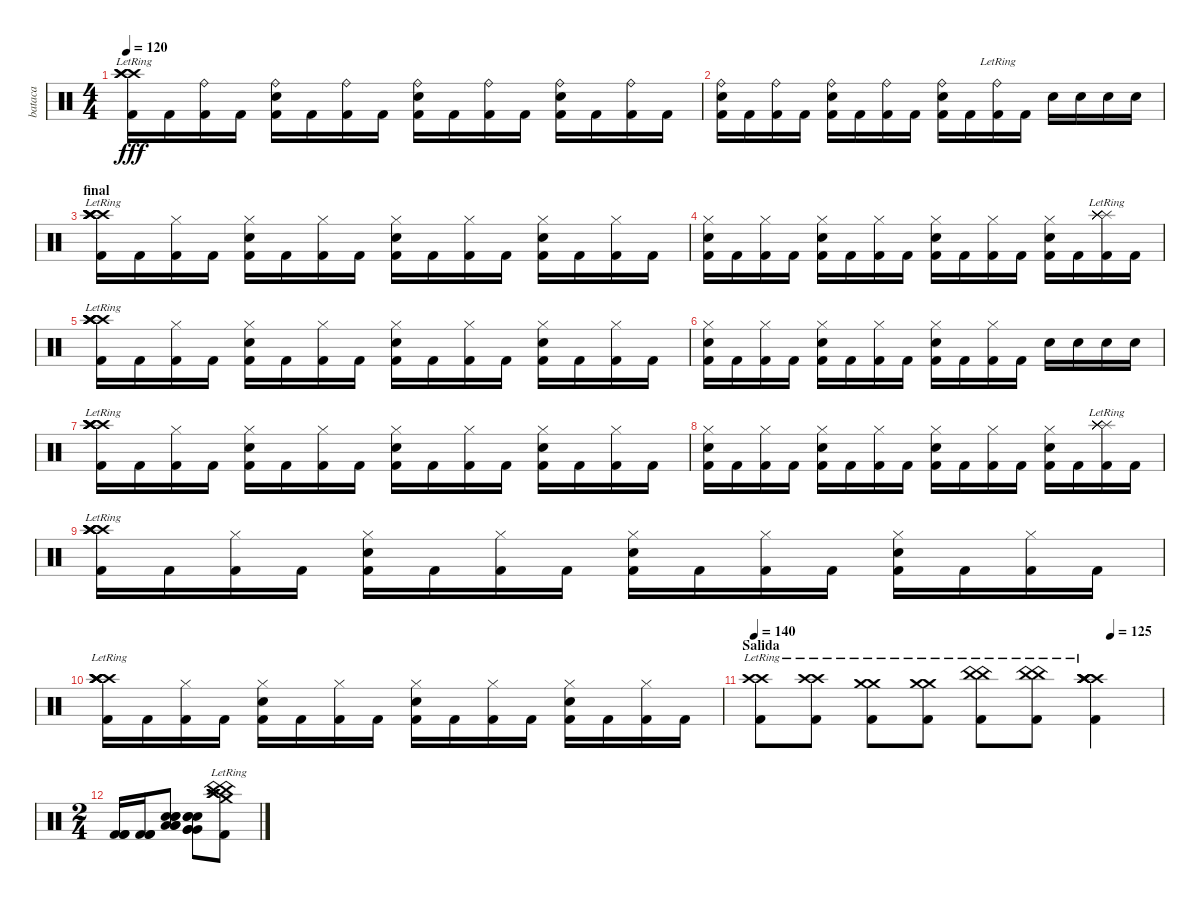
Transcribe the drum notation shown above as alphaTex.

\track ("bataca" "bataca") {instrument percussion}
\staff {score}
\articulation defaults
\ts (4 4)
\tempo 120
\clef neutral
\ks c
("Kick (hit) 2" "Crash high (hit)"{lr} "Crash high (hit)"{lr} "Crash high (hit)"{lr}).16{dy fff} "Kick (hit) 2".16 ("Kick (hit) 2" "Ride (bell)").16 "Kick (hit) 2".16 ("Kick (hit) 2" "Ride (bell)" "Electric Snare (hit)").16 "Kick (hit) 2".16 ("Kick (hit) 2" "Ride (bell)").16 "Kick (hit) 2".16 ("Kick (hit) 2" "Ride (bell)" "Electric Snare (hit)").16 "Kick (hit) 2".16 ("Kick (hit) 2" "Ride (bell)").16 "Kick (hit) 2".16 ("Kick (hit) 2" "Ride (bell)" "Electric Snare (hit)").16 "Kick (hit) 2".16 ("Kick (hit) 2" "Ride (bell)").16 "Kick (hit) 2".16 |
("Kick (hit) 2" "Ride (bell)" "Electric Snare (hit)").16 "Kick (hit) 2".16 ("Kick (hit) 2" "Ride (bell)").16 "Kick (hit) 2".16 ("Kick (hit) 2" "Ride (bell)" "Electric Snare (hit)").16 "Kick (hit) 2".16 ("Kick (hit) 2" "Ride (bell)").16 "Kick (hit) 2".16 ("Kick (hit) 2" "Ride (bell)" "Electric Snare (hit)").16 "Kick (hit) 2".16 ("Kick (hit) 2" "Ride (bell)"{lr}).16 "Kick (hit) 2".16 "Electric Snare (hit)".16 "Electric Snare (hit)".16 "Electric Snare (hit)".16 "Electric Snare (hit)".16 |
\section ("" "final")
("Kick (hit) 2" "Crash high (hit)"{lr} "Crash high (hit)"{lr} "Crash high (hit)"{lr} "Crash high (hit)"{lr} "Crash high (hit)"{lr}).16 "Kick (hit) 2".16 ("Kick (hit) 2" "Hi-Hat (closed)").16 "Kick (hit) 2".16 ("Kick (hit) 2" "Hi-Hat (closed)" "Electric Snare (hit)").16 "Kick (hit) 2".16 ("Kick (hit) 2" "Hi-Hat (closed)").16 "Kick (hit) 2".16 ("Kick (hit) 2" "Hi-Hat (closed)" "Electric Snare (hit)").16 "Kick (hit) 2".16 ("Kick (hit) 2" "Hi-Hat (closed)").16 "Kick (hit) 2".16 ("Kick (hit) 2" "Hi-Hat (closed)" "Electric Snare (hit)").16 "Kick (hit) 2".16 ("Kick (hit) 2" "Hi-Hat (closed)").16 "Kick (hit) 2".16 |
("Kick (hit) 2" "Hi-Hat (closed)" "Electric Snare (hit)").16 "Kick (hit) 2".16 ("Kick (hit) 2" "Hi-Hat (closed)").16 "Kick (hit) 2".16 ("Kick (hit) 2" "Hi-Hat (closed)" "Electric Snare (hit)").16 "Kick (hit) 2".16 ("Kick (hit) 2" "Hi-Hat (closed)").16 "Kick (hit) 2".16 ("Kick (hit) 2" "Hi-Hat (closed)" "Electric Snare (hit)").16 "Kick (hit) 2".16 ("Kick (hit) 2" "Hi-Hat (closed)").16 "Kick (hit) 2".16 ("Kick (hit) 2" "Hi-Hat (closed)" "Electric Snare (hit)").16 "Kick (hit) 2".16 ("Kick (hit) 2" "Splash (hit)"{lr} "Splash (hit)"{lr} "Splash (hit)"{lr} "Splash (hit)"{lr} "Splash (hit)"{lr}).16 "Kick (hit) 2".16 |
("Kick (hit) 2" "Crash high (hit)"{lr} "Crash high (hit)"{lr} "Crash high (hit)"{lr} "Crash high (hit)"{lr} "Crash high (hit)"{lr}).16 "Kick (hit) 2".16 ("Kick (hit) 2" "Hi-Hat (closed)").16 "Kick (hit) 2".16 ("Kick (hit) 2" "Hi-Hat (closed)" "Electric Snare (hit)").16 "Kick (hit) 2".16 ("Kick (hit) 2" "Hi-Hat (closed)").16 "Kick (hit) 2".16 ("Kick (hit) 2" "Hi-Hat (closed)" "Electric Snare (hit)").16 "Kick (hit) 2".16 ("Kick (hit) 2" "Hi-Hat (closed)").16 "Kick (hit) 2".16 ("Kick (hit) 2" "Hi-Hat (closed)" "Electric Snare (hit)").16 "Kick (hit) 2".16 ("Kick (hit) 2" "Hi-Hat (closed)").16 "Kick (hit) 2".16 |
("Kick (hit) 2" "Hi-Hat (closed)" "Electric Snare (hit)").16 "Kick (hit) 2".16 ("Kick (hit) 2" "Hi-Hat (closed)").16 "Kick (hit) 2".16 ("Kick (hit) 2" "Hi-Hat (closed)" "Electric Snare (hit)").16 "Kick (hit) 2".16 ("Kick (hit) 2" "Hi-Hat (closed)").16 "Kick (hit) 2".16 ("Kick (hit) 2" "Hi-Hat (closed)" "Electric Snare (hit)").16 "Kick (hit) 2".16 ("Kick (hit) 2" "Hi-Hat (closed)").16 "Kick (hit) 2".16 "Electric Snare (hit)".16 "Electric Snare (hit)".16 "Electric Snare (hit)".16 "Electric Snare (hit)".16 |
("Kick (hit) 2" "Crash high (hit)"{lr} "Crash high (hit)"{lr} "Crash high (hit)"{lr} "Crash high (hit)"{lr} "Crash high (hit)"{lr}).16 "Kick (hit) 2".16 ("Kick (hit) 2" "Hi-Hat (closed)").16 "Kick (hit) 2".16 ("Kick (hit) 2" "Hi-Hat (closed)" "Electric Snare (hit)").16 "Kick (hit) 2".16 ("Kick (hit) 2" "Hi-Hat (closed)").16 "Kick (hit) 2".16 ("Kick (hit) 2" "Hi-Hat (closed)" "Electric Snare (hit)").16 "Kick (hit) 2".16 ("Kick (hit) 2" "Hi-Hat (closed)").16 "Kick (hit) 2".16 ("Kick (hit) 2" "Hi-Hat (closed)" "Electric Snare (hit)").16 "Kick (hit) 2".16 ("Kick (hit) 2" "Hi-Hat (closed)").16 "Kick (hit) 2".16 |
("Kick (hit) 2" "Hi-Hat (closed)" "Electric Snare (hit)").16 "Kick (hit) 2".16 ("Kick (hit) 2" "Hi-Hat (closed)").16 "Kick (hit) 2".16 ("Kick (hit) 2" "Hi-Hat (closed)" "Electric Snare (hit)").16 "Kick (hit) 2".16 ("Kick (hit) 2" "Hi-Hat (closed)").16 "Kick (hit) 2".16 ("Kick (hit) 2" "Hi-Hat (closed)" "Electric Snare (hit)").16 "Kick (hit) 2".16 ("Kick (hit) 2" "Hi-Hat (closed)").16 "Kick (hit) 2".16 ("Kick (hit) 2" "Hi-Hat (closed)" "Electric Snare (hit)").16 "Kick (hit) 2".16 ("Kick (hit) 2" "Splash (hit)"{lr} "Splash (hit)"{lr} "Splash (hit)"{lr} "Splash (hit)"{lr} "Splash (hit)"{lr}).16 "Kick (hit) 2".16 |
("Kick (hit) 2" "Crash high (hit)"{lr} "Crash high (hit)"{lr} "Crash high (hit)"{lr} "Crash high (hit)"{lr} "Crash high (hit)"{lr}).16 "Kick (hit) 2".16 ("Kick (hit) 2" "Hi-Hat (closed)").16 "Kick (hit) 2".16 ("Kick (hit) 2" "Hi-Hat (closed)" "Electric Snare (hit)").16 "Kick (hit) 2".16 ("Kick (hit) 2" "Hi-Hat (closed)").16 "Kick (hit) 2".16 ("Kick (hit) 2" "Hi-Hat (closed)" "Electric Snare (hit)").16 "Kick (hit) 2".16 ("Kick (hit) 2" "Hi-Hat (closed)").16 "Kick (hit) 2".16 ("Kick (hit) 2" "Hi-Hat (closed)" "Electric Snare (hit)").16 "Kick (hit) 2".16 ("Kick (hit) 2" "Hi-Hat (closed)").16 "Kick (hit) 2".16 |
("Kick (hit) 2" "Crash high (hit)"{lr} "Crash high (hit)"{lr} "Crash high (hit)"{lr} "Crash high (hit)"{lr} "Crash high (hit)"{lr}).16 "Kick (hit) 2".16 ("Kick (hit) 2" "Hi-Hat (closed)").16 "Kick (hit) 2".16 ("Kick (hit) 2" "Hi-Hat (closed)" "Electric Snare (hit)").16 "Kick (hit) 2".16 ("Kick (hit) 2" "Hi-Hat (closed)").16 "Kick (hit) 2".16 ("Kick (hit) 2" "Hi-Hat (closed)" "Electric Snare (hit)").16 "Kick (hit) 2".16 ("Kick (hit) 2" "Hi-Hat (closed)").16 "Kick (hit) 2".16 ("Kick (hit) 2" "Hi-Hat (closed)" "Electric Snare (hit)").16 "Kick (hit) 2".16 ("Kick (hit) 2" "Hi-Hat (closed)").16 "Kick (hit) 2".16 |
\section ("" "Salida")
\tempo 140
\tempo (125 0.875)
("Kick (hit) 2" "Crash high (hit)"{lr} "Crash high (hit)"{lr}).8 ("Kick (hit) 2" "Crash high (hit)"{lr} "Crash high (hit)"{lr}).8 ("Kick (hit) 2" "Crash medium (hit)"{lr} "Crash medium (hit)"{lr}).8 ("Kick (hit) 2" "Crash medium (hit)"{lr} "Crash medium (hit)"{lr}).8 ("Kick (hit) 2" "China (hit)"{lr} "China (hit)"{lr}).8 ("Kick (hit) 2" "China (hit)"{lr} "China (hit)"{lr}).8 ("Kick (hit) 2" "Crash high (hit)"{lr} "Crash high (hit)"{lr} "Crash high (hit)"{lr} "Crash high (hit)"{lr} "Crash high (hit)"{lr}).4 |
\ts (2 4)
("Kick (hit) 2" "Kick (hit) 2" "Kick (hit) 2").16 ("Kick (hit) 2" "Kick (hit) 2" "Kick (hit) 2").16 ("Electric Snare (hit)" "Electric Snare (hit)" "Electric Snare (hit)" "Low Floor Tom (hit)" "Low Floor Tom (hit)" "Low Floor Tom (hit)").8 ("Electric Snare (hit)" "Electric Snare (hit)" "Electric Snare (hit)" "Very Low Tom (hit)" "Very Low Tom (hit)" "Very Low Tom (hit)").8 ("Kick (hit) 2"{lr} "Crash high (hit)"{lr} "Crash high (hit)"{lr} "China (hit)"{lr} "China (hit)"{lr} "Crash medium (hit)"{lr}).8
